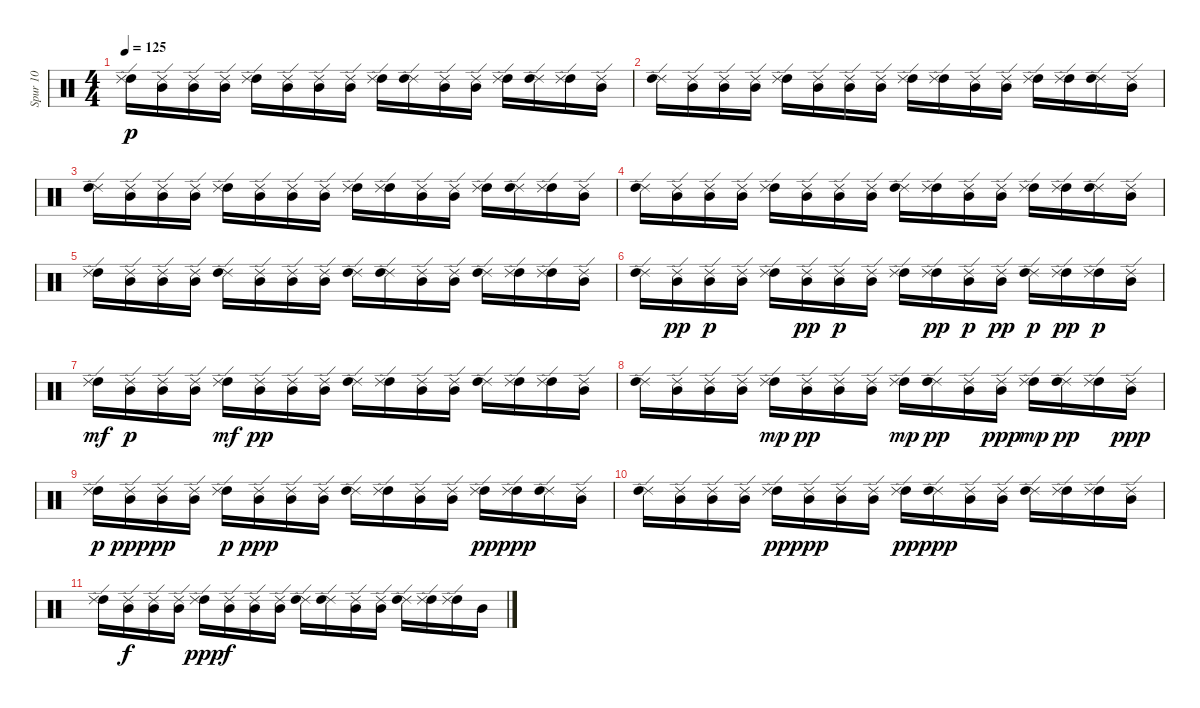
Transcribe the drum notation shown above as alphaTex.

\track ("Spur 10" "Spur 10") {instrument percussion}
\staff {score}
\articulation defaults
\ts (4 4)
\tempo 125
\clef neutral
\ks c
("High Tom (hit)" "Ride (edge) 2").16{dy p} ("Mid Tom (hit)" "Ride (edge) 2").16 ("Ride (edge) 2" "Mid Tom (hit)").16 ("Mid Tom (hit)" "Ride (edge) 2").16 ("High Tom (hit)" "Ride (edge) 2").16 ("Ride (edge) 2" "Mid Tom (hit)").16 ("Ride (edge) 2" "Mid Tom (hit)").16 ("Mid Tom (hit)" "Ride (edge) 2").16 ("High Tom (hit)" "Ride (edge) 2").16 ("Ride (edge) 2" "High Tom (hit)").16 ("Ride (edge) 2" "Mid Tom (hit)").16 ("Ride (edge) 2" "Mid Tom (hit)").16 ("High Tom (hit)" "Ride (edge) 2").16 ("Ride (edge) 2" "High Tom (hit)").16 ("High Tom (hit)" "Ride (edge) 2").16 ("Ride (edge) 2" "Mid Tom (hit)").16 |
("Ride (edge) 2" "High Tom (hit)").16 ("Ride (edge) 2" "Mid Tom (hit)").16 ("Mid Tom (hit)" "Ride (edge) 2").16 ("Mid Tom (hit)" "Ride (edge) 2").16 ("High Tom (hit)" "Ride (edge) 2").16 ("Ride (edge) 2" "Mid Tom (hit)").16 ("Ride (edge) 2" "Mid Tom (hit)").16 ("Ride (edge) 2" "Mid Tom (hit)").16 ("High Tom (hit)" "Ride (edge) 2").16 ("High Tom (hit)" "Ride (edge) 2").16 ("Mid Tom (hit)" "Ride (edge) 2").16 ("Mid Tom (hit)" "Ride (edge) 2").16 ("High Tom (hit)" "Ride (edge) 2").16 ("High Tom (hit)" "Ride (edge) 2").16 ("Ride (edge) 2" "High Tom (hit)").16 ("Ride (edge) 2" "Mid Tom (hit)").16 |
("Ride (edge) 2" "High Tom (hit)").16 ("Mid Tom (hit)" "Ride (edge) 2").16 ("Ride (edge) 2" "Mid Tom (hit)").16 ("Ride (edge) 2" "Mid Tom (hit)").16 ("High Tom (hit)" "Ride (edge) 2").16 ("Mid Tom (hit)" "Ride (edge) 2").16 ("Mid Tom (hit)" "Ride (edge) 2").16 ("Ride (edge) 2" "Mid Tom (hit)").16 ("High Tom (hit)" "Ride (edge) 2").16 ("High Tom (hit)" "Ride (edge) 2").16 ("Ride (edge) 2" "Mid Tom (hit)").16 ("Ride (edge) 2" "Mid Tom (hit)").16 ("High Tom (hit)" "Ride (edge) 2").16 ("Ride (edge) 2" "High Tom (hit)").16 ("High Tom (hit)" "Ride (edge) 2").16 ("Ride (edge) 2" "Mid Tom (hit)").16 |
("Ride (edge) 2" "High Tom (hit)").16 ("Ride (edge) 2" "Mid Tom (hit)").16 ("Mid Tom (hit)" "Ride (edge) 2").16 ("Ride (edge) 2" "Mid Tom (hit)").16 ("High Tom (hit)" "Ride (edge) 2").16 ("Mid Tom (hit)" "Ride (edge) 2").16 ("Mid Tom (hit)" "Ride (edge) 2").16 ("Ride (edge) 2" "Mid Tom (hit)").16 ("Ride (edge) 2" "High Tom (hit)").16 ("High Tom (hit)" "Ride (edge) 2").16 ("Mid Tom (hit)" "Ride (edge) 2").16 ("Mid Tom (hit)" "Ride (edge) 2").16 ("High Tom (hit)" "Ride (edge) 2").16 ("High Tom (hit)" "Ride (edge) 2").16 ("Ride (edge) 2" "High Tom (hit)").16 ("Mid Tom (hit)" "Ride (edge) 2").16 |
("High Tom (hit)" "Ride (edge) 2").16 ("Ride (edge) 2" "Mid Tom (hit)").16 ("Mid Tom (hit)" "Ride (edge) 2").16 ("Mid Tom (hit)" "Ride (edge) 2").16 ("Ride (edge) 2" "High Tom (hit)").16 ("Ride (edge) 2" "Mid Tom (hit)").16 ("Ride (edge) 2" "Mid Tom (hit)").16 ("Mid Tom (hit)" "Ride (edge) 2").16 ("Ride (edge) 2" "High Tom (hit)").16 ("Ride (edge) 2" "High Tom (hit)").16 ("Mid Tom (hit)" "Ride (edge) 2").16 ("Mid Tom (hit)" "Ride (edge) 2").16 ("Ride (edge) 2" "High Tom (hit)").16 ("High Tom (hit)" "Ride (edge) 2").16 ("High Tom (hit)" "Ride (edge) 2").16 ("Ride (edge) 2" "Mid Tom (hit)").16 |
("Ride (edge) 2" "High Tom (hit)").16 ("Mid Tom (hit)" "Ride (edge) 2").16{dy pp} ("Ride (edge) 2" "Mid Tom (hit)").16{dy p} ("Ride (edge) 2" "Mid Tom (hit)").16 ("High Tom (hit)" "Ride (edge) 2").16 ("Mid Tom (hit)" "Ride (edge) 2").16{dy pp} ("Ride (edge) 2" "Mid Tom (hit)").16{dy p} ("Ride (edge) 2" "Mid Tom (hit)").16 ("High Tom (hit)" "Ride (edge) 2").16 ("High Tom (hit)" "Ride (edge) 2").16{dy pp} ("Ride (edge) 2" "Mid Tom (hit)").16{dy p} ("Mid Tom (hit)" "Ride (edge) 2").16{dy pp} ("Ride (edge) 2" "High Tom (hit)").16{dy p} ("High Tom (hit)" "Ride (edge) 2").16{dy pp} ("High Tom (hit)" "Ride (edge) 2").16{dy p} ("Ride (edge) 2" "Mid Tom (hit)").16 |
("High Tom (hit)" "Ride (edge) 2").16{dy mf} ("Ride (edge) 2" "Mid Tom (hit)").16{dy p} ("Ride (edge) 2" "Mid Tom (hit)").16 ("Ride (edge) 2" "Mid Tom (hit)").16 ("High Tom (hit)" "Ride (edge) 2").16{dy mf} ("Ride (edge) 2" "Mid Tom (hit)").16{dy pp} ("Ride (edge) 2" "Mid Tom (hit)").16 ("Ride (edge) 2" "Mid Tom (hit)").16 ("Ride (edge) 2" "High Tom (hit)").16 ("High Tom (hit)" "Ride (edge) 2").16 ("Ride (edge) 2" "Mid Tom (hit)").16 ("Mid Tom (hit)" "Ride (edge) 2").16 ("Ride (edge) 2" "High Tom (hit)").16 ("High Tom (hit)" "Ride (edge) 2").16 ("High Tom (hit)" "Ride (edge) 2").16 ("Ride (edge) 2" "Mid Tom (hit)").16 |
("Ride (edge) 2" "High Tom (hit)").16 ("Mid Tom (hit)" "Ride (edge) 2").16 ("Ride (edge) 2" "Mid Tom (hit)").16 ("Mid Tom (hit)" "Ride (edge) 2").16 ("High Tom (hit)" "Ride (edge) 2").16{dy mp} ("Ride (edge) 2" "Mid Tom (hit)").16{dy pp} ("Ride (edge) 2" "Mid Tom (hit)").16 ("Ride (edge) 2" "Mid Tom (hit)").16 ("High Tom (hit)" "Ride (edge) 2").16{dy mp} ("Ride (edge) 2" "High Tom (hit)").16{dy pp} ("Mid Tom (hit)" "Ride (edge) 2").16 ("Mid Tom (hit)" "Ride (edge) 2").16{dy ppp} ("High Tom (hit)" "Ride (edge) 2").16{dy mp} ("Ride (edge) 2" "High Tom (hit)").16{dy pp} ("High Tom (hit)" "Ride (edge) 2").16 ("Mid Tom (hit)" "Ride (edge) 2").16{dy ppp} |
("High Tom (hit)" "Ride (edge) 2").16{dy p} ("Mid Tom (hit)" "Ride (edge) 2").16{dy ppp} ("Mid Tom (hit)" "Ride (edge) 2").16{dy pp} ("Ride (edge) 2" "Mid Tom (hit)").16 ("High Tom (hit)" "Ride (edge) 2").16{dy p} ("Mid Tom (hit)" "Ride (edge) 2").16{dy ppp} ("Mid Tom (hit)" "Ride (edge) 2").16 ("Mid Tom (hit)" "Ride (edge) 2").16 ("Ride (edge) 2" "High Tom (hit)").16 ("High Tom (hit)" "Ride (edge) 2").16 ("Mid Tom (hit)" "Ride (edge) 2").16 ("Ride (edge) 2" "Mid Tom (hit)").16 ("High Tom (hit)" "Ride (edge) 2").16{dy pp} ("High Tom (hit)" "Ride (edge) 2").16{dy ppp} ("Ride (edge) 2" "High Tom (hit)").16 ("Ride (edge) 2" "Mid Tom (hit)").16 |
("Ride (edge) 2" "High Tom (hit)").16 ("Mid Tom (hit)" "Ride (edge) 2").16 ("Ride (edge) 2" "Mid Tom (hit)").16 ("Mid Tom (hit)" "Ride (edge) 2").16 ("High Tom (hit)" "Ride (edge) 2").16{dy pp} ("Ride (edge) 2" "Mid Tom (hit)").16{dy ppp} ("Ride (edge) 2" "Mid Tom (hit)").16 ("Mid Tom (hit)" "Ride (edge) 2").16 ("High Tom (hit)" "Ride (edge) 2").16{dy pp} ("Ride (edge) 2" "High Tom (hit)").16{dy ppp} ("Ride (edge) 2" "Mid Tom (hit)").16 ("Mid Tom (hit)" "Ride (edge) 2").16 ("Ride (edge) 2" "High Tom (hit)").16 ("High Tom (hit)" "Ride (edge) 2").16 ("High Tom (hit)" "Ride (edge) 2").16 ("Ride (edge) 2" "Mid Tom (hit)").16 |
("High Tom (hit)" "Ride (edge) 2").16 ("Mid Tom (hit)" "Ride (edge) 2").16{dy f} ("Ride (edge) 2" "Mid Tom (hit)").16 ("Mid Tom (hit)" "Ride (edge) 2").16 ("High Tom (hit)" "Ride (edge) 2").16{dy ppp} ("Mid Tom (hit)" "Ride (edge) 2").16{dy f} ("Mid Tom (hit)" "Ride (edge) 2").16 ("Ride (edge) 2" "Mid Tom (hit)").16 ("Ride (edge) 2" "High Tom (hit)").16 ("Ride (edge) 2" "High Tom (hit)").16 ("Ride (edge) 2" "Mid Tom (hit)").16 ("Mid Tom (hit)" "Ride (edge) 2").16 ("Ride (edge) 2" "High Tom (hit)").16 ("High Tom (hit)" "Ride (edge) 2").16 ("High Tom (hit)" "Ride (edge) 2").16 "Mid Tom (hit)".16
